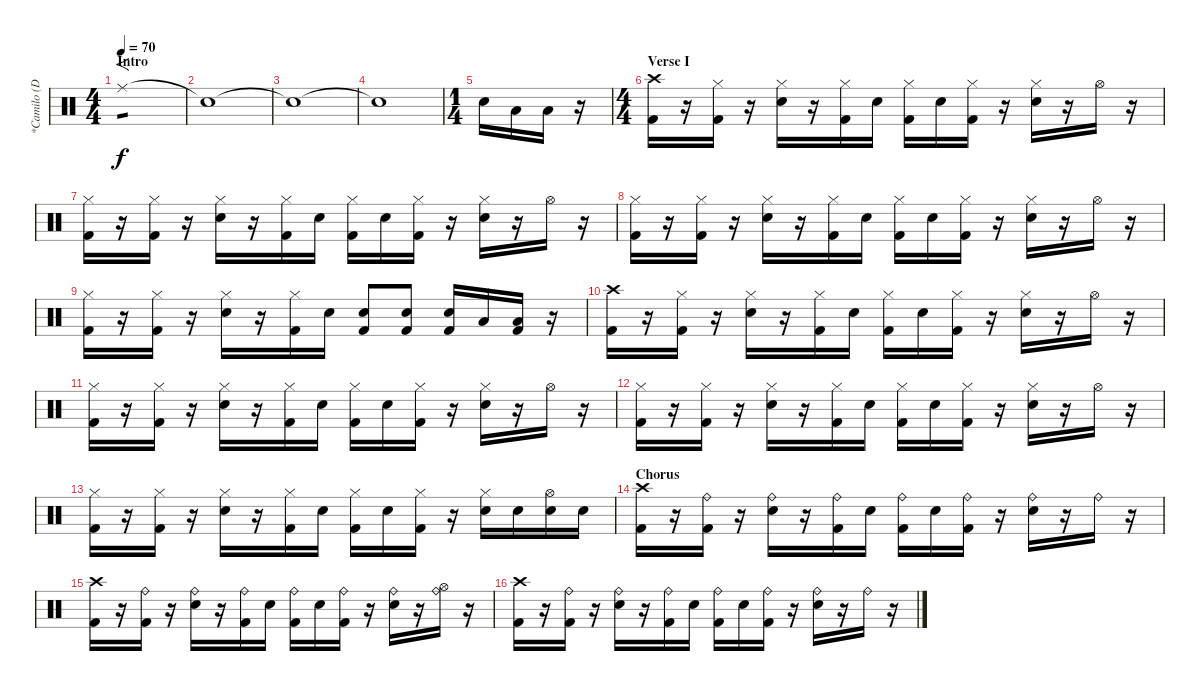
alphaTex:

\track ("*Camilo (Drums)" "*Camilo (D") {instrument percussion}
\staff {score}
\articulation defaults
\ts (4 4)
\section ("" "Intro")
\tempo 70
\clef neutral
\ks c "Ride (middle)".1{f tp 1 dy f}
|
"Snare (hit)"{t}.1 |
"Snare (hit)"{t}.1 |
"Snare (hit)"{t}.1 |
\ts (1 4)
"Electric Snare (hit)".16 "Low Tom (hit)".16 "Low Tom (hit)".16 r.16 |
\ts (4 4)
\section ("" "Verse I")
("Crash high (hit)" "Kick (hit) 2").16 r.16 ("Hi-Hat (closed)" "Kick (hit) 2").16 r.16 ("Hi-Hat (closed)" "Electric Snare (hit)").16 r.16 ("Hi-Hat (closed)" "Kick (hit) 2").16 "Electric Snare (hit)".16 ("Hi-Hat (closed)" "Kick (hit) 2").16 "Electric Snare (hit)".16 ("Hi-Hat (closed)" "Kick (hit) 2").16 r.16 ("Hi-Hat (closed)" "Electric Snare (hit)").16 r.16 "Hi-Hat (open)".16 r.16 |
("Hi-Hat (closed)" "Kick (hit) 2").16 r.16 ("Hi-Hat (closed)" "Kick (hit) 2").16 r.16 ("Hi-Hat (closed)" "Electric Snare (hit)").16 r.16 ("Hi-Hat (closed)" "Kick (hit) 2").16 "Electric Snare (hit)".16 ("Hi-Hat (closed)" "Kick (hit) 2").16 "Electric Snare (hit)".16 ("Hi-Hat (closed)" "Kick (hit) 2").16 r.16 ("Hi-Hat (closed)" "Electric Snare (hit)").16 r.16 "Hi-Hat (open)".16 r.16 |
("Hi-Hat (closed)" "Kick (hit) 2").16 r.16 ("Hi-Hat (closed)" "Kick (hit) 2").16 r.16 ("Hi-Hat (closed)" "Electric Snare (hit)").16 r.16 ("Hi-Hat (closed)" "Kick (hit) 2").16 "Electric Snare (hit)".16 ("Hi-Hat (closed)" "Kick (hit) 2").16 "Electric Snare (hit)".16 ("Hi-Hat (closed)" "Kick (hit) 2").16 r.16 ("Hi-Hat (closed)" "Electric Snare (hit)").16 r.16 "Hi-Hat (open)".16 r.16 |
("Hi-Hat (closed)" "Kick (hit) 2").16 r.16 ("Hi-Hat (closed)" "Kick (hit) 2").16 r.16 ("Hi-Hat (closed)" "Electric Snare (hit)").16 r.16 ("Hi-Hat (closed)" "Kick (hit) 2").16 "Electric Snare (hit)".16 ("Electric Snare (hit)" "Kick (hit) 2").8 ("Electric Snare (hit)" "Kick (hit) 2").8 ("Electric Snare (hit)" "Kick (hit) 2").16 "Low Tom (hit)".16 ("Low Floor Tom (hit)" "Kick (hit) 2").16 r.16 |
("Crash high (hit)" "Kick (hit) 2").16 r.16 ("Hi-Hat (closed)" "Kick (hit) 2").16 r.16 ("Hi-Hat (closed)" "Electric Snare (hit)").16 r.16 ("Hi-Hat (closed)" "Kick (hit) 2").16 "Electric Snare (hit)".16 ("Hi-Hat (closed)" "Kick (hit) 2").16 "Electric Snare (hit)".16 ("Hi-Hat (closed)" "Kick (hit) 2").16 r.16 ("Hi-Hat (closed)" "Electric Snare (hit)").16 r.16 "Hi-Hat (open)".16 r.16 |
("Hi-Hat (closed)" "Kick (hit) 2").16 r.16 ("Hi-Hat (closed)" "Kick (hit) 2").16 r.16 ("Hi-Hat (closed)" "Electric Snare (hit)").16 r.16 ("Hi-Hat (closed)" "Kick (hit) 2").16 "Electric Snare (hit)".16 ("Hi-Hat (closed)" "Kick (hit) 2").16 "Electric Snare (hit)".16 ("Hi-Hat (closed)" "Kick (hit) 2").16 r.16 ("Hi-Hat (closed)" "Electric Snare (hit)").16 r.16 "Hi-Hat (open)".16 r.16 |
("Hi-Hat (closed)" "Kick (hit) 2").16 r.16 ("Hi-Hat (closed)" "Kick (hit) 2").16 r.16 ("Hi-Hat (closed)" "Electric Snare (hit)").16 r.16 ("Hi-Hat (closed)" "Kick (hit) 2").16 "Electric Snare (hit)".16 ("Hi-Hat (closed)" "Kick (hit) 2").16 "Electric Snare (hit)".16 ("Hi-Hat (closed)" "Kick (hit) 2").16 r.16 ("Hi-Hat (closed)" "Electric Snare (hit)").16 r.16 "Hi-Hat (open)".16 r.16 |
("Hi-Hat (closed)" "Kick (hit) 2").16 r.16 ("Hi-Hat (closed)" "Kick (hit) 2").16 r.16 ("Hi-Hat (closed)" "Electric Snare (hit)").16 r.16 ("Hi-Hat (closed)" "Kick (hit) 2").16 "Electric Snare (hit)".16 ("Hi-Hat (closed)" "Kick (hit) 2").16 "Electric Snare (hit)".16 ("Hi-Hat (closed)" "Kick (hit) 2").16 r.16 ("Hi-Hat (closed)" "Electric Snare (hit)").16 "Electric Snare (hit)".16 ("Hi-Hat (open)" "Electric Snare (hit)").16 "Electric Snare (hit)".16 |
\section ("" "Chorus")
("Crash high (hit)" "Kick (hit) 2").16 r.16 ("Ride (bell)" "Kick (hit) 2").16 r.16 ("Ride (bell)" "Electric Snare (hit)").16 r.16 ("Ride (bell)" "Kick (hit) 2").16 "Electric Snare (hit)".16 ("Ride (bell)" "Kick (hit) 2").16 "Electric Snare (hit)".16 ("Ride (bell)" "Kick (hit) 2").16 r.16 ("Ride (bell)" "Electric Snare (hit)").16 r.16 "Ride (bell)".16 r.16 |
("Crash high (hit)" "Kick (hit) 2").16 r.16 ("Ride (bell)" "Kick (hit) 2").16 r.16 ("Ride (bell)" "Electric Snare (hit)").16 r.16 ("Ride (bell)" "Kick (hit) 2").16 "Electric Snare (hit)".16 ("Ride (bell)" "Kick (hit) 2").16 "Electric Snare (hit)".16 ("Ride (bell)" "Kick (hit) 2").16 r.16 ("Ride (bell)" "Electric Snare (hit)").16 r.16 ("Ride (bell)" "Hi-Hat (open)").16 r.16 |
("Crash high (hit)" "Kick (hit) 2").16 r.16 ("Ride (bell)" "Kick (hit) 2").16 r.16 ("Ride (bell)" "Electric Snare (hit)").16 r.16 ("Ride (bell)" "Kick (hit) 2").16 "Electric Snare (hit)".16 ("Ride (bell)" "Kick (hit) 2").16 "Electric Snare (hit)".16 ("Ride (bell)" "Kick (hit) 2").16 r.16 ("Ride (bell)" "Electric Snare (hit)").16 r.16 "Ride (bell)".16 r.16
